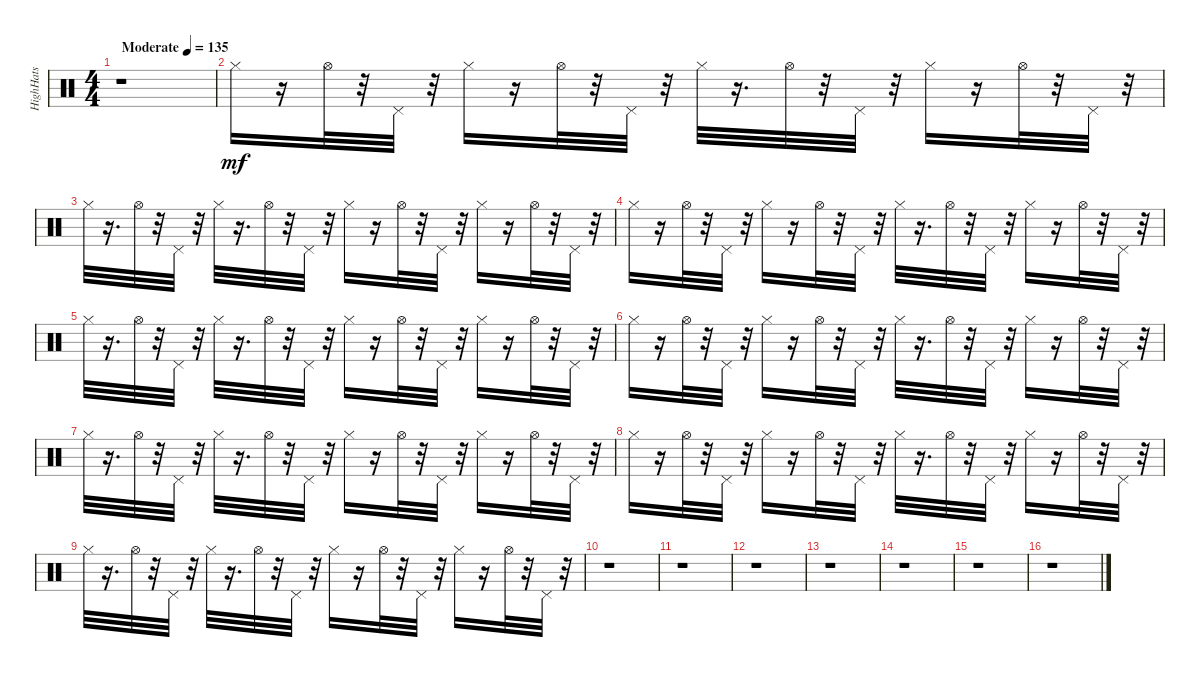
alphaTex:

\track ("HighHats" "HighHats") {instrument percussion}
\staff {score}
\articulation defaults
\ts (4 4)
\tempo (135 "Moderate")
\clef neutral
\ks c
r.1{dy mf} |
"Hi-Hat (closed)".16 r.16 "Hi-Hat (open)".32 r.32 "Pedal Hi-Hat (hit)".32 r.32 "Hi-Hat (closed)".16 r.16 "Hi-Hat (open)".32 r.32 "Pedal Hi-Hat (hit)".32 r.32 "Hi-Hat (closed)".32 r.16{d} "Hi-Hat (open)".32 r.32 "Pedal Hi-Hat (hit)".32 r.32 "Hi-Hat (closed)".16 r.16 "Hi-Hat (open)".32 r.32 "Pedal Hi-Hat (hit)".32 r.32 |
"Hi-Hat (closed)".32 r.16{d} "Hi-Hat (open)".32 r.32 "Pedal Hi-Hat (hit)".32 r.32 "Hi-Hat (closed)".32 r.16{d} "Hi-Hat (open)".32 r.32 "Pedal Hi-Hat (hit)".32 r.32 "Hi-Hat (closed)".16 r.16 "Hi-Hat (open)".32 r.32 "Pedal Hi-Hat (hit)".32 r.32 "Hi-Hat (closed)".16 r.16 "Hi-Hat (open)".32 r.32 "Pedal Hi-Hat (hit)".32 r.32 |
"Hi-Hat (closed)".16 r.16 "Hi-Hat (open)".32 r.32 "Pedal Hi-Hat (hit)".32 r.32 "Hi-Hat (closed)".16 r.16 "Hi-Hat (open)".32 r.32 "Pedal Hi-Hat (hit)".32 r.32 "Hi-Hat (closed)".32 r.16{d} "Hi-Hat (open)".32 r.32 "Pedal Hi-Hat (hit)".32 r.32 "Hi-Hat (closed)".16 r.16 "Hi-Hat (open)".32 r.32 "Pedal Hi-Hat (hit)".32 r.32 |
"Hi-Hat (closed)".32 r.16{d} "Hi-Hat (open)".32 r.32 "Pedal Hi-Hat (hit)".32 r.32 "Hi-Hat (closed)".32 r.16{d} "Hi-Hat (open)".32 r.32 "Pedal Hi-Hat (hit)".32 r.32 "Hi-Hat (closed)".16 r.16 "Hi-Hat (open)".32 r.32 "Pedal Hi-Hat (hit)".32 r.32 "Hi-Hat (closed)".16 r.16 "Hi-Hat (open)".32 r.32 "Pedal Hi-Hat (hit)".32 r.32 |
"Hi-Hat (closed)".16 r.16 "Hi-Hat (open)".32 r.32 "Pedal Hi-Hat (hit)".32 r.32 "Hi-Hat (closed)".16 r.16 "Hi-Hat (open)".32 r.32 "Pedal Hi-Hat (hit)".32 r.32 "Hi-Hat (closed)".32 r.16{d} "Hi-Hat (open)".32 r.32 "Pedal Hi-Hat (hit)".32 r.32 "Hi-Hat (closed)".16 r.16 "Hi-Hat (open)".32 r.32 "Pedal Hi-Hat (hit)".32 r.32 |
"Hi-Hat (closed)".32 r.16{d} "Hi-Hat (open)".32 r.32 "Pedal Hi-Hat (hit)".32 r.32 "Hi-Hat (closed)".32 r.16{d} "Hi-Hat (open)".32 r.32 "Pedal Hi-Hat (hit)".32 r.32 "Hi-Hat (closed)".16 r.16 "Hi-Hat (open)".32 r.32 "Pedal Hi-Hat (hit)".32 r.32 "Hi-Hat (closed)".16 r.16 "Hi-Hat (open)".32 r.32 "Pedal Hi-Hat (hit)".32 r.32 |
"Hi-Hat (closed)".16 r.16 "Hi-Hat (open)".32 r.32 "Pedal Hi-Hat (hit)".32 r.32 "Hi-Hat (closed)".16 r.16 "Hi-Hat (open)".32 r.32 "Pedal Hi-Hat (hit)".32 r.32 "Hi-Hat (closed)".32 r.16{d} "Hi-Hat (open)".32 r.32 "Pedal Hi-Hat (hit)".32 r.32 "Hi-Hat (closed)".16 r.16 "Hi-Hat (open)".32 r.32 "Pedal Hi-Hat (hit)".32 r.32 |
"Hi-Hat (closed)".32 r.16{d} "Hi-Hat (open)".32 r.32 "Pedal Hi-Hat (hit)".32 r.32 "Hi-Hat (closed)".32 r.16{d} "Hi-Hat (open)".32 r.32 "Pedal Hi-Hat (hit)".32 r.32 "Hi-Hat (closed)".16 r.16 "Hi-Hat (open)".32 r.32 "Pedal Hi-Hat (hit)".32 r.32 "Hi-Hat (closed)".16 r.16 "Hi-Hat (open)".32 r.32 "Pedal Hi-Hat (hit)".32 r.32 |
r.1 |
r.1 |
r.1 |
r.1 |
r.1 |
r.1 |
r.1
